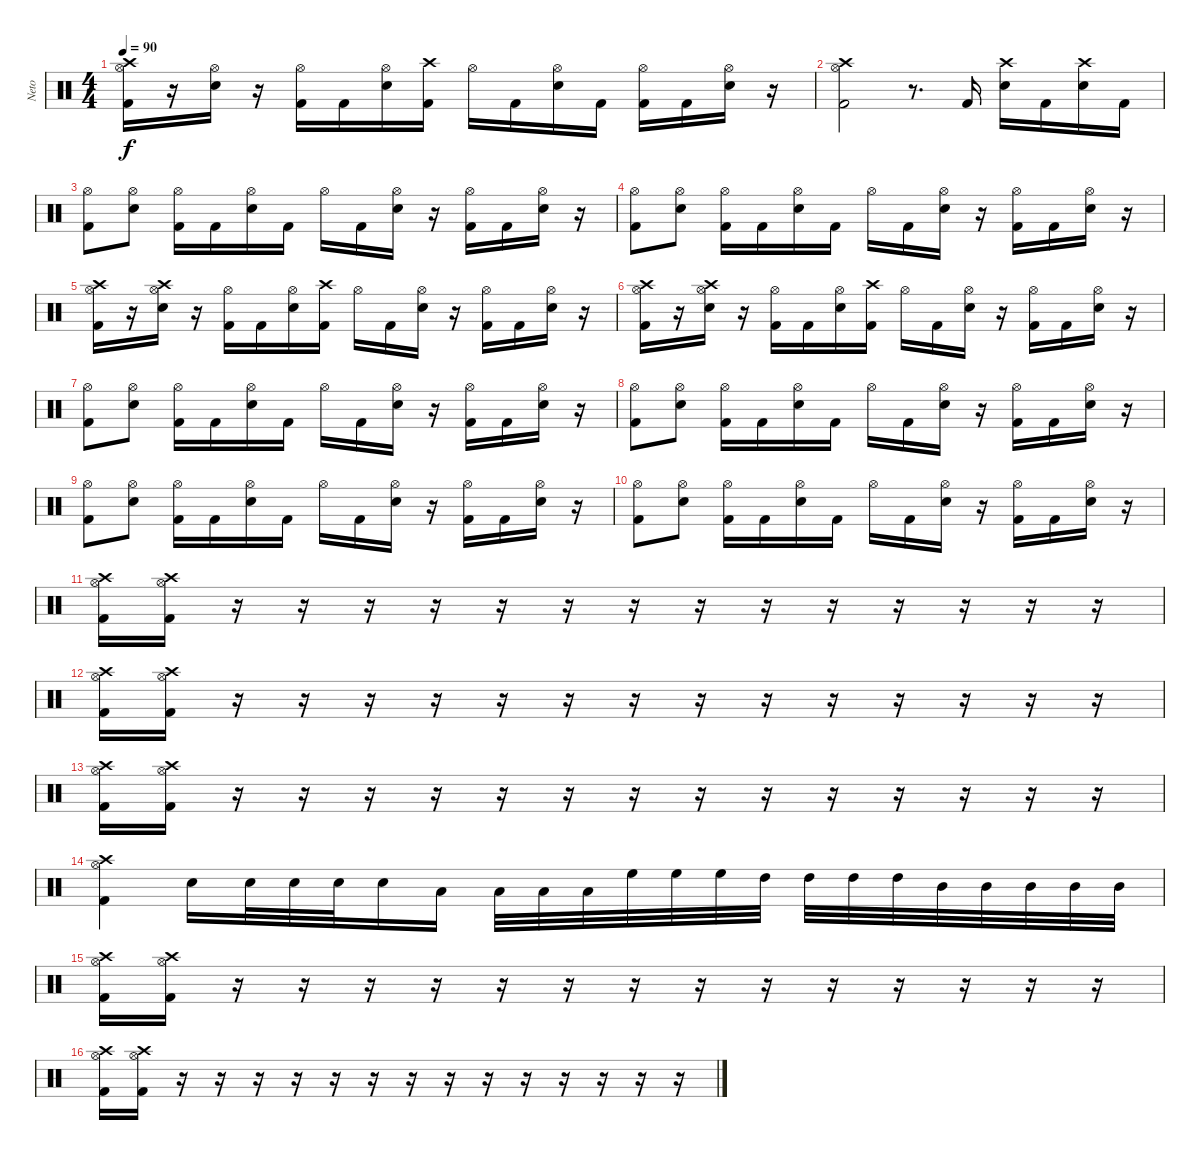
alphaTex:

\track ("Neto" "Neto") {instrument percussion}
\staff {score}
\articulation defaults
\ts (4 4)
\tempo 90
\clef neutral
\ks c
("Kick (hit) 2" "Hi-Hat (open)" "Crash high (hit)").16{dy f} r.16 ("Snare (hit) 2" "Hi-Hat (open)").16 r.16 ("Kick (hit) 2" "Hi-Hat (open)").16 "Kick (hit) 2".16 ("Snare (hit) 2" "Hi-Hat (open)").16 ("Kick (hit) 2" "Crash high (hit)").16 "Hi-Hat (open)".16 "Kick (hit) 2".16 ("Snare (hit) 2" "Hi-Hat (open)").16 "Kick (hit) 2".16 ("Kick (hit) 2" "Hi-Hat (open)").16 "Kick (hit) 2".16 ("Snare (hit) 2" "Hi-Hat (open)").16 r.16 |
("Kick (hit) 2" "Hi-Hat (open)" "Crash high (hit)").2 r.8{d} "Kick (hit) 2".16 ("Snare (hit) 2" "Crash high (hit)").16 "Kick (hit) 2".16 ("Snare (hit) 2" "Crash high (hit)").16 "Kick (hit) 2".16 |
("Kick (hit) 2" "Hi-Hat (open)").8 ("Snare (hit) 2" "Hi-Hat (open)").8 ("Kick (hit) 2" "Hi-Hat (open)").16 "Kick (hit) 2".16 ("Snare (hit) 2" "Hi-Hat (open)").16 "Kick (hit) 2".16 "Hi-Hat (open)".16 "Kick (hit) 2".16 ("Snare (hit) 2" "Hi-Hat (open)").16 r.16 ("Kick (hit) 2" "Hi-Hat (open)").16 "Kick (hit) 2".16 ("Snare (hit) 2" "Hi-Hat (open)").16 r.16 |
("Kick (hit) 2" "Hi-Hat (open)").8 ("Snare (hit) 2" "Hi-Hat (open)").8 ("Kick (hit) 2" "Hi-Hat (open)").16 "Kick (hit) 2".16 ("Snare (hit) 2" "Hi-Hat (open)").16 "Kick (hit) 2".16 "Hi-Hat (open)".16 "Kick (hit) 2".16 ("Snare (hit) 2" "Hi-Hat (open)").16 r.16 ("Kick (hit) 2" "Hi-Hat (open)").16 "Kick (hit) 2".16 ("Snare (hit) 2" "Hi-Hat (open)").16 r.16 |
("Kick (hit) 2" "Hi-Hat (open)" "Crash high (hit)").16 r.16 ("Snare (hit) 2" "Hi-Hat (open)" "Crash high (hit)").16 r.16 ("Kick (hit) 2" "Hi-Hat (open)").16 "Kick (hit) 2".16 ("Snare (hit) 2" "Hi-Hat (open)").16 ("Kick (hit) 2" "Crash high (hit)").16 "Hi-Hat (open)".16 "Kick (hit) 2".16 ("Snare (hit) 2" "Hi-Hat (open)").16 r.16 ("Kick (hit) 2" "Hi-Hat (open)").16 "Kick (hit) 2".16 ("Snare (hit) 2" "Hi-Hat (open)").16 r.16 |
("Kick (hit) 2" "Hi-Hat (open)" "Crash high (hit)").16 r.16 ("Snare (hit) 2" "Hi-Hat (open)" "Crash high (hit)").16 r.16 ("Kick (hit) 2" "Hi-Hat (open)").16 "Kick (hit) 2".16 ("Snare (hit) 2" "Hi-Hat (open)").16 ("Kick (hit) 2" "Crash high (hit)").16 "Hi-Hat (open)".16 "Kick (hit) 2".16 ("Snare (hit) 2" "Hi-Hat (open)").16 r.16 ("Kick (hit) 2" "Hi-Hat (open)").16 "Kick (hit) 2".16 ("Snare (hit) 2" "Hi-Hat (open)").16 r.16 |
("Kick (hit) 2" "Hi-Hat (open)").8 ("Snare (hit) 2" "Hi-Hat (open)").8 ("Kick (hit) 2" "Hi-Hat (open)").16 "Kick (hit) 2".16 ("Snare (hit) 2" "Hi-Hat (open)").16 "Kick (hit) 2".16 "Hi-Hat (open)".16 "Kick (hit) 2".16 ("Snare (hit) 2" "Hi-Hat (open)").16 r.16 ("Kick (hit) 2" "Hi-Hat (open)").16 "Kick (hit) 2".16 ("Snare (hit) 2" "Hi-Hat (open)").16 r.16 |
("Kick (hit) 2" "Hi-Hat (open)").8 ("Snare (hit) 2" "Hi-Hat (open)").8 ("Kick (hit) 2" "Hi-Hat (open)").16 "Kick (hit) 2".16 ("Snare (hit) 2" "Hi-Hat (open)").16 "Kick (hit) 2".16 "Hi-Hat (open)".16 "Kick (hit) 2".16 ("Snare (hit) 2" "Hi-Hat (open)").16 r.16 ("Kick (hit) 2" "Hi-Hat (open)").16 "Kick (hit) 2".16 ("Snare (hit) 2" "Hi-Hat (open)").16 r.16 |
("Kick (hit) 2" "Hi-Hat (open)").8 ("Snare (hit) 2" "Hi-Hat (open)").8 ("Kick (hit) 2" "Hi-Hat (open)").16 "Kick (hit) 2".16 ("Snare (hit) 2" "Hi-Hat (open)").16 "Kick (hit) 2".16 "Hi-Hat (open)".16 "Kick (hit) 2".16 ("Snare (hit) 2" "Hi-Hat (open)").16 r.16 ("Kick (hit) 2" "Hi-Hat (open)").16 "Kick (hit) 2".16 ("Snare (hit) 2" "Hi-Hat (open)").16 r.16 |
("Kick (hit) 2" "Hi-Hat (open)").8 ("Snare (hit) 2" "Hi-Hat (open)").8 ("Kick (hit) 2" "Hi-Hat (open)").16 "Kick (hit) 2".16 ("Snare (hit) 2" "Hi-Hat (open)").16 "Kick (hit) 2".16 "Hi-Hat (open)".16 "Kick (hit) 2".16 ("Snare (hit) 2" "Hi-Hat (open)").16 r.16 ("Kick (hit) 2" "Hi-Hat (open)").16 "Kick (hit) 2".16 ("Snare (hit) 2" "Hi-Hat (open)").16 r.16 |
("Kick (hit) 2" "Hi-Hat (open)" "Crash high (hit)").16 ("Kick (hit) 2" "Hi-Hat (open)" "Crash high (hit)").16 r.16 r.16 r.16 r.16 r.16 r.16 r.16 r.16 r.16 r.16 r.16 r.16 r.16 r.16 |
("Kick (hit) 2" "Hi-Hat (open)" "Crash high (hit)").16 ("Kick (hit) 2" "Hi-Hat (open)" "Crash high (hit)").16 r.16 r.16 r.16 r.16 r.16 r.16 r.16 r.16 r.16 r.16 r.16 r.16 r.16 r.16 |
("Kick (hit) 2" "Hi-Hat (open)" "Crash high (hit)").16 ("Kick (hit) 2" "Hi-Hat (open)" "Crash high (hit)").16 r.16 r.16 r.16 r.16 r.16 r.16 r.16 r.16 r.16 r.16 r.16 r.16 r.16 r.16 |
("Kick (hit) 2" "Hi-Hat (open)" "Crash high (hit)").4 "Snare (hit) 2".16 "Snare (hit) 2".32 "Snare (hit) 2".32 "Snare (hit) 2".32 "Snare (hit) 2".16 "Low Tom (hit)".16 "Low Tom (hit)".32 "Low Tom (hit)".32 "Low Tom (hit)".32 "High Floor Tom (hit)".32 "High Floor Tom (hit)".32 "High Floor Tom (hit)".32 "High Tom (hit)".32 "High Tom (hit)".32 "High Tom (hit)".32 "High Tom (hit)".32 "Mid Tom (hit)".32 "Mid Tom (hit)".32 "Mid Tom (hit)".32 "Mid Tom (hit)".32 "Mid Tom (hit)".32 |
("Kick (hit) 2" "Hi-Hat (open)" "Crash high (hit)").16 ("Kick (hit) 2" "Hi-Hat (open)" "Crash high (hit)").16 r.16 r.16 r.16 r.16 r.16 r.16 r.16 r.16 r.16 r.16 r.16 r.16 r.16 r.16 |
("Kick (hit) 2" "Hi-Hat (open)" "Crash high (hit)").16 ("Kick (hit) 2" "Hi-Hat (open)" "Crash high (hit)").16 r.16 r.16 r.16 r.16 r.16 r.16 r.16 r.16 r.16 r.16 r.16 r.16 r.16 r.16
